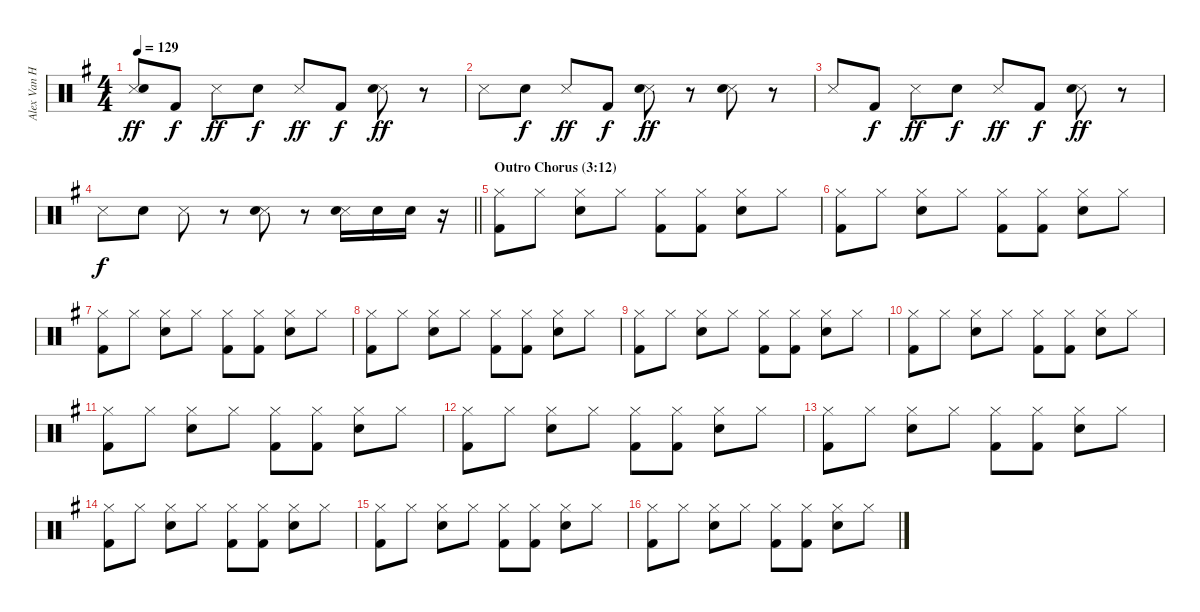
\track ("Alex Van Halen" "Alex Van H") {instrument percussion}
\staff {score}
\articulation defaults
\ts (4 4)
\tempo 129
\clef neutral
\ks eminor
("Snare (side stick) 3" "Snare (hit) 2").8{dy ff} "Kick (hit) 2".8{dy f} "Snare (side stick) 3".8{dy ff} "Snare (hit) 2".8{dy f} "Snare (side stick) 3".8{dy ff} "Kick (hit) 2".8{dy f} ("Snare (side stick) 3" "Snare (hit) 2").8{dy ff} r.8 |
"Snare (side stick) 3".8 "Snare (hit) 2".8{dy f} "Snare (side stick) 3".8{dy ff} "Kick (hit) 2".8{dy f} ("Snare (side stick) 3" "Snare (hit) 2").8{dy ff} r.8 ("Snare (side stick) 3" "Snare (hit) 2").8 r.8 |
"Snare (side stick) 3".8 "Kick (hit) 2".8{dy f} "Snare (side stick) 3".8{dy ff} "Snare (hit) 2".8{dy f} "Snare (side stick) 3".8{dy ff} "Kick (hit) 2".8{dy f} ("Snare (side stick) 3" "Snare (hit) 2").8{dy ff} r.8 |
\barLineRight lightlight "Snare (side stick) 3".8{dy f} "Snare (hit) 2".8 "Snare (side stick) 3".8
r.8 ("Snare (side stick) 3" "Snare (hit) 2").8 r.8 ("Snare (side stick) 3" "Electric Snare (hit)").16 "Electric Snare (hit)".16 "Electric Snare (hit)".16 r.16 |
\section ("" "Outro Chorus (3:12)")
("Hi-Hat (closed)" "Kick (hit) 2").8 "Hi-Hat (closed)".8 ("Hi-Hat (closed)" "Snare (hit) 2").8 "Hi-Hat (closed)".8 ("Hi-Hat (closed)" "Kick (hit) 2").8 ("Hi-Hat (closed)" "Kick (hit) 2").8 ("Hi-Hat (closed)" "Snare (hit) 2").8 "Hi-Hat (closed)".8 |
("Hi-Hat (closed)" "Kick (hit) 2").8 "Hi-Hat (closed)".8 ("Hi-Hat (closed)" "Snare (hit) 2").8 "Hi-Hat (closed)".8 ("Hi-Hat (closed)" "Kick (hit) 2").8 ("Hi-Hat (closed)" "Kick (hit) 2").8 ("Hi-Hat (closed)" "Snare (hit) 2").8 "Hi-Hat (closed)".8 |
("Hi-Hat (closed)" "Kick (hit) 2").8 "Hi-Hat (closed)".8 ("Hi-Hat (closed)" "Snare (hit) 2").8 "Hi-Hat (closed)".8 ("Hi-Hat (closed)" "Kick (hit) 2").8 ("Hi-Hat (closed)" "Kick (hit) 2").8 ("Hi-Hat (closed)" "Snare (hit) 2").8 "Hi-Hat (closed)".8 |
("Hi-Hat (closed)" "Kick (hit) 2").8 "Hi-Hat (closed)".8 ("Hi-Hat (closed)" "Snare (hit) 2").8 "Hi-Hat (closed)".8 ("Hi-Hat (closed)" "Kick (hit) 2").8 ("Hi-Hat (closed)" "Kick (hit) 2").8 ("Hi-Hat (closed)" "Snare (hit) 2").8 "Hi-Hat (closed)".8 |
("Hi-Hat (closed)" "Kick (hit) 2").8 "Hi-Hat (closed)".8 ("Hi-Hat (closed)" "Snare (hit) 2").8 "Hi-Hat (closed)".8 ("Hi-Hat (closed)" "Kick (hit) 2").8 ("Hi-Hat (closed)" "Kick (hit) 2").8 ("Hi-Hat (closed)" "Snare (hit) 2").8 "Hi-Hat (closed)".8 |
("Hi-Hat (closed)" "Kick (hit) 2").8 "Hi-Hat (closed)".8 ("Hi-Hat (closed)" "Snare (hit) 2").8 "Hi-Hat (closed)".8 ("Hi-Hat (closed)" "Kick (hit) 2").8 ("Hi-Hat (closed)" "Kick (hit) 2").8 ("Hi-Hat (closed)" "Snare (hit) 2").8 "Hi-Hat (closed)".8 |
("Hi-Hat (closed)" "Kick (hit) 2").8 "Hi-Hat (closed)".8 ("Hi-Hat (closed)" "Snare (hit) 2").8 "Hi-Hat (closed)".8 ("Hi-Hat (closed)" "Kick (hit) 2").8 ("Hi-Hat (closed)" "Kick (hit) 2").8 ("Hi-Hat (closed)" "Snare (hit) 2").8 "Hi-Hat (closed)".8 |
("Hi-Hat (closed)" "Kick (hit) 2").8 "Hi-Hat (closed)".8 ("Hi-Hat (closed)" "Snare (hit) 2").8 "Hi-Hat (closed)".8 ("Hi-Hat (closed)" "Kick (hit) 2").8 ("Hi-Hat (closed)" "Kick (hit) 2").8 ("Hi-Hat (closed)" "Snare (hit) 2").8 "Hi-Hat (closed)".8 |
("Hi-Hat (closed)" "Kick (hit) 2").8 "Hi-Hat (closed)".8 ("Hi-Hat (closed)" "Snare (hit) 2").8 "Hi-Hat (closed)".8 ("Hi-Hat (closed)" "Kick (hit) 2").8 ("Hi-Hat (closed)" "Kick (hit) 2").8 ("Hi-Hat (closed)" "Snare (hit) 2").8 "Hi-Hat (closed)".8 |
("Hi-Hat (closed)" "Kick (hit) 2").8 "Hi-Hat (closed)".8 ("Hi-Hat (closed)" "Snare (hit) 2").8 "Hi-Hat (closed)".8 ("Hi-Hat (closed)" "Kick (hit) 2").8 ("Hi-Hat (closed)" "Kick (hit) 2").8 ("Hi-Hat (closed)" "Snare (hit) 2").8 "Hi-Hat (closed)".8 |
("Hi-Hat (closed)" "Kick (hit) 2").8 "Hi-Hat (closed)".8 ("Hi-Hat (closed)" "Snare (hit) 2").8 "Hi-Hat (closed)".8 ("Hi-Hat (closed)" "Kick (hit) 2").8 ("Hi-Hat (closed)" "Kick (hit) 2").8 ("Hi-Hat (closed)" "Snare (hit) 2").8 "Hi-Hat (closed)".8 |
("Hi-Hat (closed)" "Kick (hit) 2").8 "Hi-Hat (closed)".8 ("Hi-Hat (closed)" "Snare (hit) 2").8 "Hi-Hat (closed)".8 ("Hi-Hat (closed)" "Kick (hit) 2").8 ("Hi-Hat (closed)" "Kick (hit) 2").8 ("Hi-Hat (closed)" "Snare (hit) 2").8 "Hi-Hat (closed)".8
